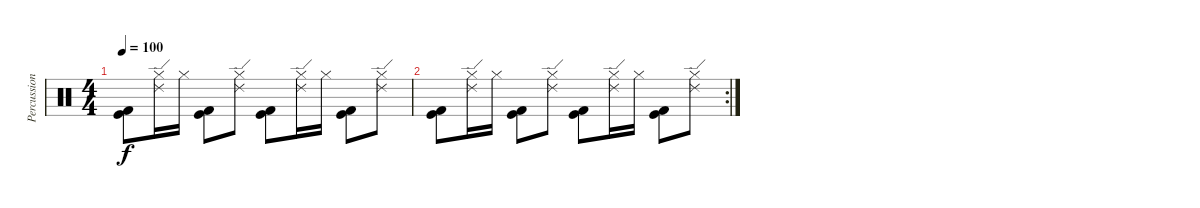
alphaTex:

\track ("Percussions" "Percussion") {instrument percussion}
\staff {score}
\articulation defaults
\ts (4 4)
\tempo 100
\clef neutral
\ks c
("Kick (hit)" "Kick (hit) 2").8{dy f} ("Ride (edge) 2" "Hi-Hat (closed)").16 "Hi-Hat (closed)".16 ("Kick (hit)" "Kick (hit) 2").8 ("Ride (edge) 2" "Hi-Hat (closed)").8 ("Kick (hit)" "Kick (hit) 2").8 ("Ride (edge) 2" "Hi-Hat (closed)").16 "Hi-Hat (closed)".16 ("Kick (hit)" "Kick (hit) 2").8 ("Ride (edge) 2" "Hi-Hat (closed)").8 |
\rc 2
("Kick (hit)" "Kick (hit) 2").8 ("Ride (edge) 2" "Hi-Hat (closed)").16 "Hi-Hat (closed)".16 ("Kick (hit)" "Kick (hit) 2").8 ("Ride (edge) 2" "Hi-Hat (closed)").8 ("Kick (hit)" "Kick (hit) 2").8 ("Ride (edge) 2" "Hi-Hat (closed)").16 "Hi-Hat (closed)".16 ("Kick (hit)" "Kick (hit) 2").8 ("Ride (edge) 2" "Hi-Hat (closed)").8
